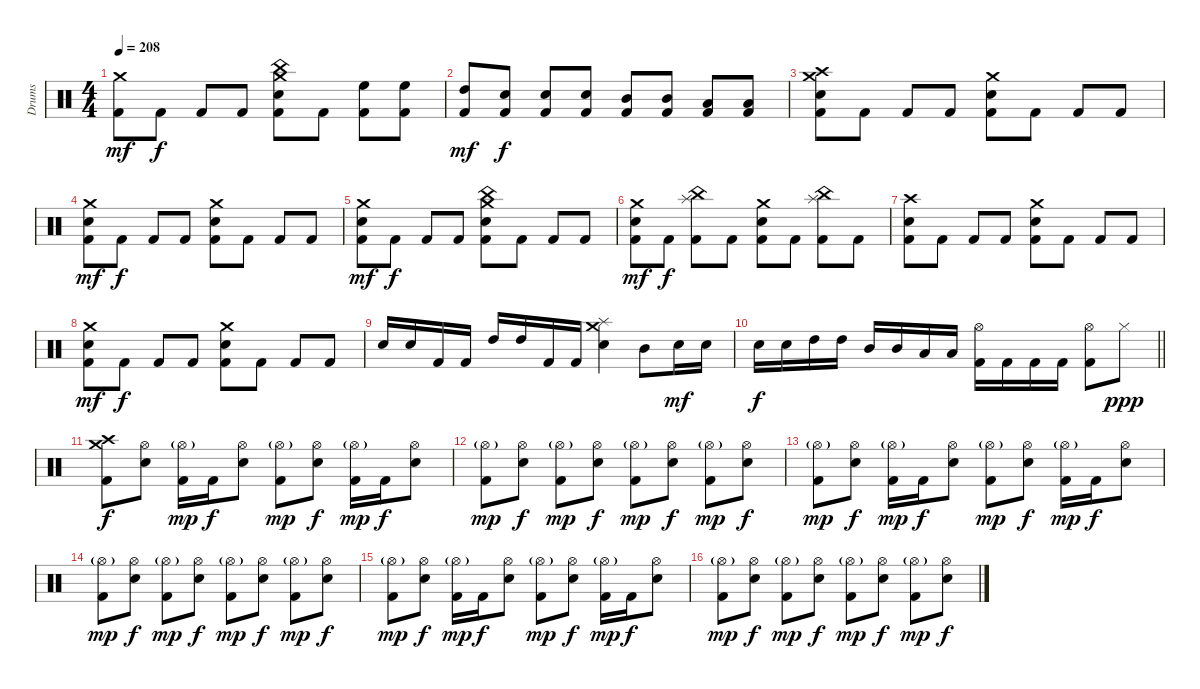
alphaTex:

\track ("Drums" "Drums") {instrument percussion}
\staff {score}
\articulation defaults
\ts (4 4)
\tempo 208
\clef neutral
\ks c
("Crash medium (hit)" "Kick (hit) 2").8{dy mf} "Kick (hit) 2".8{dy f} "Kick (hit) 2".8 "Kick (hit) 2".8 ("China (hit)" "Crash medium (hit)" "Electric Snare (hit)" "Kick (hit) 2").8 "Kick (hit) 2".8 ("High Floor Tom (hit)" "Kick (hit) 2").8 ("High Floor Tom (hit)" "Kick (hit) 2").8 |
("High Tom (hit)" "Kick (hit) 2").8{dy mf} ("Electric Snare (hit)" "Kick (hit) 2").8{dy f} ("Electric Snare (hit)" "Kick (hit) 2").8 ("Electric Snare (hit)" "Kick (hit) 2").8 ("Mid Tom (hit)" "Kick (hit) 2").8 ("Mid Tom (hit)" "Kick (hit) 2").8 ("Low Tom (hit)" "Kick (hit) 2").8 ("Low Tom (hit)" "Kick (hit) 2").8 |
("Crash high (hit)" "Crash medium (hit)" "Electric Snare (hit)" "Kick (hit) 2").8 "Kick (hit) 2".8 "Kick (hit) 2".8 "Kick (hit) 2".8 ("Crash medium (hit)" "Electric Snare (hit)" "Kick (hit) 2").8 "Kick (hit) 2".8 "Kick (hit) 2".8 "Kick (hit) 2".8 |
("Crash medium (hit)" "Electric Snare (hit)" "Kick (hit) 2").8{dy mf} "Kick (hit) 2".8{dy f} "Kick (hit) 2".8 "Kick (hit) 2".8 ("Crash medium (hit)" "Electric Snare (hit)" "Kick (hit) 2").8 "Kick (hit) 2".8 "Kick (hit) 2".8 "Kick (hit) 2".8 |
("Crash medium (hit)" "Electric Snare (hit)" "Kick (hit) 2").8{dy mf} "Kick (hit) 2".8{dy f} "Kick (hit) 2".8 "Kick (hit) 2".8 ("China (hit)" "Crash medium (hit)" "Electric Snare (hit)" "Kick (hit) 2").8 "Kick (hit) 2".8 "Kick (hit) 2".8 "Kick (hit) 2".8 |
("Crash medium (hit)" "Electric Snare (hit)" "Kick (hit) 2").8{dy mf} "Kick (hit) 2".8{dy f} ("China (hit)" "Splash (hit)" "Kick (hit) 2").8 "Kick (hit) 2".8 ("Crash medium (hit)" "Electric Snare (hit)" "Kick (hit) 2").8 "Kick (hit) 2".8 ("China (hit)" "Splash (hit)" "Kick (hit) 2").8 "Kick (hit) 2".8 |
("Crash high (hit)" "Electric Snare (hit)" "Kick (hit) 2").8 "Kick (hit) 2".8 "Kick (hit) 2".8 "Kick (hit) 2".8 ("Crash medium (hit)" "Electric Snare (hit)" "Kick (hit) 2").8 "Kick (hit) 2".8 "Kick (hit) 2".8 "Kick (hit) 2".8 |
("Crash medium (hit)" "Electric Snare (hit)" "Kick (hit) 2").8{dy mf} "Kick (hit) 2".8{dy f} "Kick (hit) 2".8 "Kick (hit) 2".8 ("Crash medium (hit)" "Electric Snare (hit)" "Kick (hit) 2").8 "Kick (hit) 2".8 "Kick (hit) 2".8 "Kick (hit) 2".8 |
"Electric Snare (hit)".16 "Electric Snare (hit)".16 "Kick (hit) 2".16 "Kick (hit) 2".16 "High Tom (hit)".16 "High Tom (hit)".16 "Kick (hit) 2".16 "Kick (hit) 2".16 ("Crash medium (hit)" "Splash (hit)" "Electric Snare (hit)").4 "Mid Tom (hit)".8 "Electric Snare (hit)".16{dy mf} "Electric Snare (hit)".16 |
\barLineRight lightlight "Electric Snare (hit)".16{dy f} "Electric Snare (hit)".16 "High Tom (hit)".16 "High Tom (hit)".16 "Mid Tom (hit)".16 "Mid Tom (hit)".16 "Low Tom (hit)".16 "Low Tom (hit)".16
("Hi-Hat (open)" "Kick (hit) 2").16 "Kick (hit) 2".16 "Kick (hit) 2".16 "Kick (hit) 2".16 ("Hi-Hat (open)" "Kick (hit) 2").8 "Hi-Hat (closed)".8{dy ppp} |
("Crash high (hit)" "Crash medium (hit)" "Kick (hit) 2").8{dy f} ("Hi-Hat (open)" "Electric Snare (hit)").8 ("Hi-Hat (open)"{g} "Kick (hit) 2").16{dy mp} "Kick (hit) 2".16{dy f} ("Hi-Hat (open)" "Electric Snare (hit)").8 ("Hi-Hat (open)"{g} "Kick (hit) 2").8{dy mp} ("Hi-Hat (open)" "Electric Snare (hit)").8{dy f} ("Hi-Hat (open)"{g} "Kick (hit) 2").16{dy mp} "Kick (hit) 2".16{dy f} ("Hi-Hat (open)" "Electric Snare (hit)").8 |
("Hi-Hat (open)"{g} "Kick (hit) 2").8{dy mp} ("Hi-Hat (open)" "Electric Snare (hit)").8{dy f} ("Hi-Hat (open)"{g} "Kick (hit) 2").8{dy mp} ("Hi-Hat (open)" "Electric Snare (hit)").8{dy f} ("Hi-Hat (open)"{g} "Kick (hit) 2").8{dy mp} ("Hi-Hat (open)" "Electric Snare (hit)").8{dy f} ("Hi-Hat (open)"{g} "Kick (hit) 2").8{dy mp} ("Hi-Hat (open)" "Electric Snare (hit)").8{dy f} |
("Hi-Hat (open)"{g} "Kick (hit) 2").8{dy mp} ("Hi-Hat (open)" "Electric Snare (hit)").8{dy f} ("Hi-Hat (open)"{g} "Kick (hit) 2").16{dy mp} "Kick (hit) 2".16{dy f} ("Hi-Hat (open)" "Electric Snare (hit)").8 ("Hi-Hat (open)"{g} "Kick (hit) 2").8{dy mp} ("Hi-Hat (open)" "Electric Snare (hit)").8{dy f} ("Hi-Hat (open)"{g} "Kick (hit) 2").16{dy mp} "Kick (hit) 2".16{dy f} ("Hi-Hat (open)" "Electric Snare (hit)").8 |
("Hi-Hat (open)"{g} "Kick (hit) 2").8{dy mp} ("Hi-Hat (open)" "Electric Snare (hit)").8{dy f} ("Hi-Hat (open)"{g} "Kick (hit) 2").8{dy mp} ("Hi-Hat (open)" "Electric Snare (hit)").8{dy f} ("Hi-Hat (open)"{g} "Kick (hit) 2").8{dy mp} ("Hi-Hat (open)" "Electric Snare (hit)").8{dy f} ("Hi-Hat (open)"{g} "Kick (hit) 2").8{dy mp} ("Hi-Hat (open)" "Electric Snare (hit)").8{dy f} |
("Hi-Hat (open)"{g} "Kick (hit) 2").8{dy mp} ("Hi-Hat (open)" "Electric Snare (hit)").8{dy f} ("Hi-Hat (open)"{g} "Kick (hit) 2").16{dy mp} "Kick (hit) 2".16{dy f} ("Hi-Hat (open)" "Electric Snare (hit)").8 ("Hi-Hat (open)"{g} "Kick (hit) 2").8{dy mp} ("Hi-Hat (open)" "Electric Snare (hit)").8{dy f} ("Hi-Hat (open)"{g} "Kick (hit) 2").16{dy mp} "Kick (hit) 2".16{dy f} ("Hi-Hat (open)" "Electric Snare (hit)").8 |
("Hi-Hat (open)"{g} "Kick (hit) 2").8{dy mp} ("Hi-Hat (open)" "Electric Snare (hit)").8{dy f} ("Hi-Hat (open)"{g} "Kick (hit) 2").8{dy mp} ("Hi-Hat (open)" "Electric Snare (hit)").8{dy f} ("Hi-Hat (open)"{g} "Kick (hit) 2").8{dy mp} ("Hi-Hat (open)" "Electric Snare (hit)").8{dy f} ("Hi-Hat (open)"{g} "Kick (hit) 2").8{dy mp} ("Hi-Hat (open)" "Electric Snare (hit)").8{dy f}
